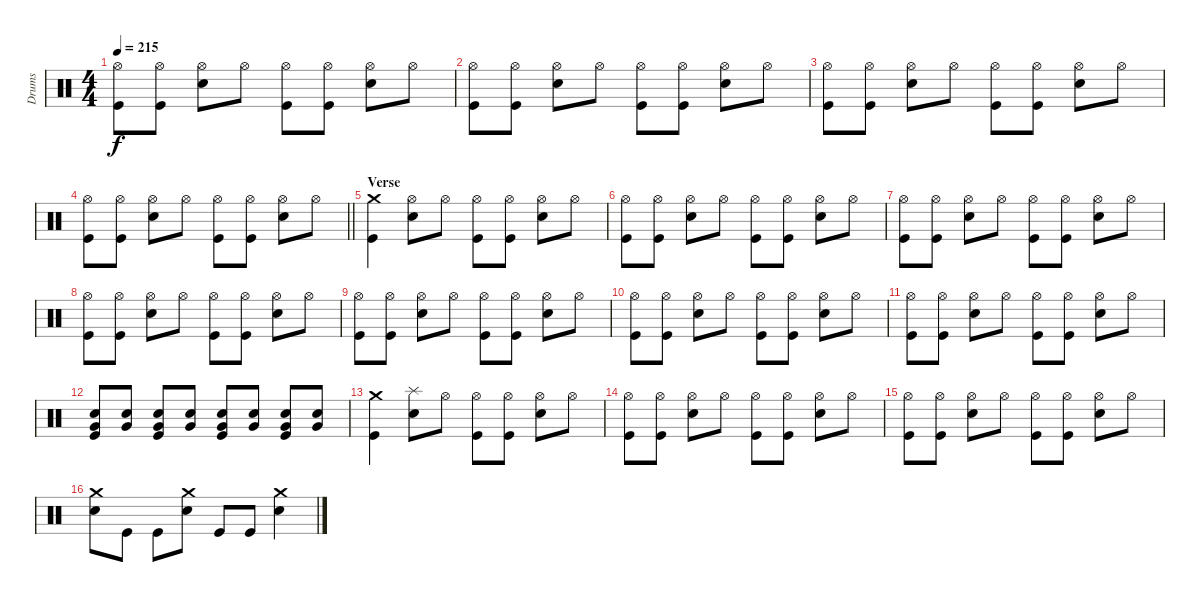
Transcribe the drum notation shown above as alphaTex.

\track ("Drums" "Drums") {instrument percussion}
\staff {score}
\articulation defaults
\ts (4 4)
\tempo 215
\clef neutral
\ks c
("Kick (hit)" "Hi-Hat (open)").8{dy f} ("Kick (hit)" "Hi-Hat (open)").8 ("Snare (hit) 2" "Hi-Hat (open)").8 "Hi-Hat (open)".8 ("Kick (hit)" "Hi-Hat (open)").8 ("Kick (hit)" "Hi-Hat (open)").8 ("Snare (hit) 2" "Hi-Hat (open)").8 "Hi-Hat (open)".8 |
("Kick (hit)" "Hi-Hat (open)").8 ("Kick (hit)" "Hi-Hat (open)").8 ("Snare (hit) 2" "Hi-Hat (open)").8 "Hi-Hat (open)".8 ("Kick (hit)" "Hi-Hat (open)").8 ("Kick (hit)" "Hi-Hat (open)").8 ("Snare (hit) 2" "Hi-Hat (open)").8 "Hi-Hat (open)".8 |
("Kick (hit)" "Hi-Hat (open)").8 ("Kick (hit)" "Hi-Hat (open)").8 ("Snare (hit) 2" "Hi-Hat (open)").8 "Hi-Hat (open)".8 ("Kick (hit)" "Hi-Hat (open)").8 ("Kick (hit)" "Hi-Hat (open)").8 ("Snare (hit) 2" "Hi-Hat (open)").8 "Hi-Hat (open)".8 |
\barLineRight lightlight
("Kick (hit)" "Hi-Hat (open)").8 ("Kick (hit)" "Hi-Hat (open)").8 ("Snare (hit) 2" "Hi-Hat (open)").8 "Hi-Hat (open)".8 ("Kick (hit)" "Hi-Hat (open)").8 ("Kick (hit)" "Hi-Hat (open)").8 ("Snare (hit) 2" "Hi-Hat (open)").8 "Hi-Hat (open)".8 |
\section ("" "Verse")
("Kick (hit)" "Crash medium (hit)").4 ("Snare (hit) 2" "Hi-Hat (open)").8 "Hi-Hat (open)".8 ("Kick (hit)" "Hi-Hat (open)").8 ("Kick (hit)" "Hi-Hat (open)").8 ("Snare (hit) 2" "Hi-Hat (open)").8 "Hi-Hat (open)".8 |
("Kick (hit)" "Hi-Hat (open)").8 ("Kick (hit)" "Hi-Hat (open)").8 ("Snare (hit) 2" "Hi-Hat (open)").8 "Hi-Hat (open)".8 ("Kick (hit)" "Hi-Hat (open)").8 ("Kick (hit)" "Hi-Hat (open)").8 ("Snare (hit) 2" "Hi-Hat (open)").8 "Hi-Hat (open)".8 |
("Kick (hit)" "Hi-Hat (open)").8 ("Kick (hit)" "Hi-Hat (open)").8 ("Snare (hit) 2" "Hi-Hat (open)").8 "Hi-Hat (open)".8 ("Kick (hit)" "Hi-Hat (open)").8 ("Kick (hit)" "Hi-Hat (open)").8 ("Snare (hit) 2" "Hi-Hat (open)").8 "Hi-Hat (open)".8 |
("Kick (hit)" "Hi-Hat (open)").8 ("Kick (hit)" "Hi-Hat (open)").8 ("Snare (hit) 2" "Hi-Hat (open)").8 "Hi-Hat (open)".8 ("Kick (hit)" "Hi-Hat (open)").8 ("Kick (hit)" "Hi-Hat (open)").8 ("Snare (hit) 2" "Hi-Hat (open)").8 "Hi-Hat (open)".8 |
("Kick (hit)" "Hi-Hat (open)").8 ("Kick (hit)" "Hi-Hat (open)").8 ("Snare (hit) 2" "Hi-Hat (open)").8 "Hi-Hat (open)".8 ("Kick (hit)" "Hi-Hat (open)").8 ("Kick (hit)" "Hi-Hat (open)").8 ("Snare (hit) 2" "Hi-Hat (open)").8 "Hi-Hat (open)".8 |
("Kick (hit)" "Hi-Hat (open)").8 ("Kick (hit)" "Hi-Hat (open)").8 ("Snare (hit) 2" "Hi-Hat (open)").8 "Hi-Hat (open)".8 ("Kick (hit)" "Hi-Hat (open)").8 ("Kick (hit)" "Hi-Hat (open)").8 ("Snare (hit) 2" "Hi-Hat (open)").8 "Hi-Hat (open)".8 |
("Kick (hit)" "Hi-Hat (open)").8 ("Kick (hit)" "Hi-Hat (open)").8 ("Snare (hit) 2" "Hi-Hat (open)").8 "Hi-Hat (open)".8 ("Kick (hit)" "Hi-Hat (open)").8 ("Kick (hit)" "Hi-Hat (open)").8 ("Snare (hit) 2" "Hi-Hat (open)").8 "Hi-Hat (open)".8 |
("Kick (hit)" "Very Low Tom (hit)" "Snare (hit) 2").8 ("Snare (hit) 2" "Very Low Tom (hit)").8 ("Kick (hit)" "Very Low Tom (hit)" "Snare (hit) 2").8 ("Snare (hit) 2" "Very Low Tom (hit)").8 ("Kick (hit)" "Very Low Tom (hit)" "Snare (hit) 2").8 ("Snare (hit) 2" "Very Low Tom (hit)").8 ("Kick (hit)" "Very Low Tom (hit)" "Snare (hit) 2").8 ("Snare (hit) 2" "Very Low Tom (hit)").8 |
("Kick (hit)" "Crash medium (hit)").4 ("Snare (hit) 2" "Splash (hit)").8 "Hi-Hat (open)".8 ("Kick (hit)" "Hi-Hat (open)").8 ("Kick (hit)" "Hi-Hat (open)").8 ("Snare (hit) 2" "Hi-Hat (open)").8 "Hi-Hat (open)".8 |
("Kick (hit)" "Hi-Hat (open)").8 ("Kick (hit)" "Hi-Hat (open)").8 ("Snare (hit) 2" "Hi-Hat (open)").8 "Hi-Hat (open)".8 ("Kick (hit)" "Hi-Hat (open)").8 ("Kick (hit)" "Hi-Hat (open)").8 ("Snare (hit) 2" "Hi-Hat (open)").8 "Hi-Hat (open)".8 |
("Kick (hit)" "Hi-Hat (open)").8 ("Kick (hit)" "Hi-Hat (open)").8 ("Snare (hit) 2" "Hi-Hat (open)").8 "Hi-Hat (open)".8 ("Kick (hit)" "Hi-Hat (open)").8 ("Kick (hit)" "Hi-Hat (open)").8 ("Snare (hit) 2" "Hi-Hat (open)").8 "Hi-Hat (open)".8 |
("Snare (hit) 2" "Crash medium (hit)").8 "Kick (hit)".8 "Kick (hit)".8 ("Snare (hit) 2" "Crash medium (hit)").8 "Kick (hit)".8 "Kick (hit)".8 ("Snare (hit) 2" "Crash medium (hit)").4
